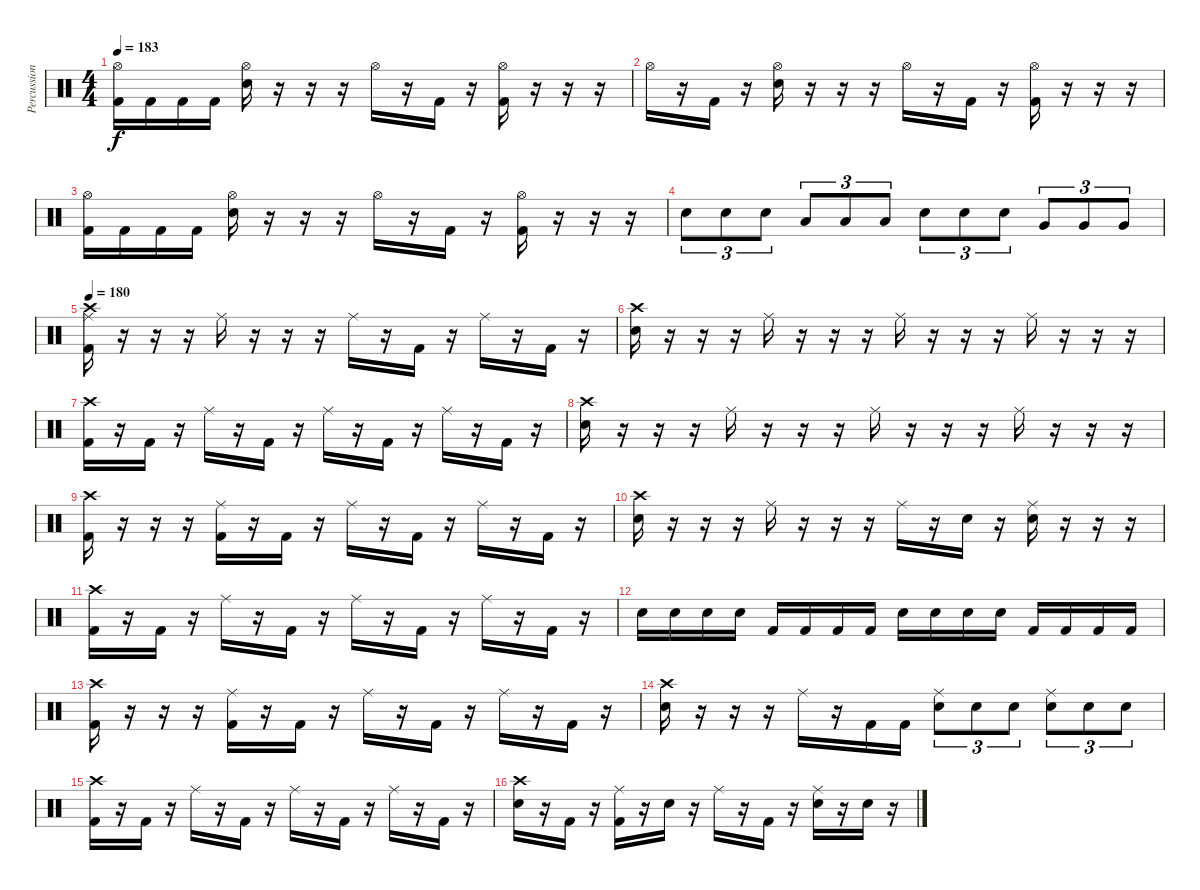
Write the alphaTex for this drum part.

\track ("Percussion" "Percussion") {instrument percussion}
\staff {score}
\articulation defaults
\ts (4 4)
\tempo 183
\clef neutral
\ks c
("Hi-Hat (open)" "Kick (hit) 2").16{dy f} "Kick (hit) 2".16 "Kick (hit) 2".16 "Kick (hit) 2".16 ("Hi-Hat (open)" "Electric Snare (hit)").16 r.16 r.16 r.16 "Hi-Hat (open)".16 r.16 "Kick (hit) 2".16 r.16 ("Hi-Hat (open)" "Kick (hit) 2").16 r.16 r.16 r.16 |
"Hi-Hat (open)".16 r.16 "Kick (hit) 2".16 r.16 ("Hi-Hat (open)" "Electric Snare (hit)").16 r.16 r.16 r.16 "Hi-Hat (open)".16 r.16 "Kick (hit) 2".16 r.16 ("Hi-Hat (open)" "Kick (hit) 2").16 r.16 r.16 r.16 |
("Hi-Hat (open)" "Kick (hit) 2").16 "Kick (hit) 2".16 "Kick (hit) 2".16 "Kick (hit) 2".16 ("Hi-Hat (open)" "Electric Snare (hit)").16 r.16 r.16 r.16 "Hi-Hat (open)".16 r.16 "Kick (hit) 2".16 r.16 ("Hi-Hat (open)" "Kick (hit) 2").16 r.16 r.16 r.16 |
"Electric Snare (hit)".8{tu (3 2)} "Electric Snare (hit)".8{tu (3 2)} "Electric Snare (hit)".8{tu (3 2)} "Low Tom (hit)".8{tu (3 2)} "Low Tom (hit)".8{tu (3 2)} "Low Tom (hit)".8{tu (3 2)} "Electric Snare (hit)".8{tu (3 2)} "Electric Snare (hit)".8{tu (3 2)} "Electric Snare (hit)".8{tu (3 2)} "Very Low Tom (hit)".8{tu (3 2)} "Very Low Tom (hit)".8{tu (3 2)} "Very Low Tom (hit)".8{tu (3 2)} |
\tempo 180
("Ride (middle)" "Crash high (hit)" "Kick (hit) 2").16 r.16 r.16 r.16 "Ride (middle)".16 r.16 r.16 r.16 "Ride (middle)".16 r.16 "Kick (hit) 2".16 r.16 "Ride (middle)".16 r.16 "Kick (hit) 2".16 r.16 |
("Crash high (hit)" "Electric Snare (hit)").16 r.16 r.16 r.16 "Ride (middle)".16 r.16 r.16 r.16 "Ride (middle)".16 r.16 r.16 r.16 "Ride (middle)".16 r.16 r.16 r.16 |
("Crash high (hit)" "Kick (hit) 2").16 r.16 "Kick (hit) 2".16 r.16 "Ride (middle)".16 r.16 "Kick (hit) 2".16 r.16 "Ride (middle)".16 r.16 "Kick (hit) 2".16 r.16 "Ride (middle)".16 r.16 "Kick (hit) 2".16 r.16 |
("Crash high (hit)" "Electric Snare (hit)").16 r.16 r.16 r.16 "Ride (middle)".16 r.16 r.16 r.16 "Ride (middle)".16 r.16 r.16 r.16 "Ride (middle)".16 r.16 r.16 r.16 |
("Crash high (hit)" "Kick (hit) 2").16 r.16 r.16 r.16 ("Ride (middle)" "Kick (hit) 2").16 r.16 "Kick (hit) 2".16 r.16 "Ride (middle)".16 r.16 "Kick (hit) 2".16 r.16 "Ride (middle)".16 r.16 "Kick (hit) 2".16 r.16 |
("Crash high (hit)" "Electric Snare (hit)").16 r.16 r.16 r.16 "Ride (middle)".16 r.16 r.16 r.16 "Ride (middle)".16 r.16 "Electric Snare (hit)".16 r.16 ("Ride (middle)" "Electric Snare (hit)").16 r.16 r.16 r.16 |
("Crash high (hit)" "Kick (hit) 2").16 r.16 "Kick (hit) 2".16 r.16 "Ride (middle)".16 r.16 "Kick (hit) 2".16 r.16 "Ride (middle)".16 r.16 "Kick (hit) 2".16 r.16 "Ride (middle)".16 r.16 "Kick (hit) 2".16 r.16 |
"Electric Snare (hit)".16 "Electric Snare (hit)".16 "Electric Snare (hit)".16 "Electric Snare (hit)".16 "Kick (hit) 2".16 "Kick (hit) 2".16 "Kick (hit) 2".16 "Kick (hit) 2".16 "Electric Snare (hit)".16 "Electric Snare (hit)".16 "Electric Snare (hit)".16 "Electric Snare (hit)".16 "Kick (hit) 2".16 "Kick (hit) 2".16 "Kick (hit) 2".16 "Kick (hit) 2".16 |
("Crash high (hit)" "Kick (hit) 2").16 r.16 r.16 r.16 ("Ride (middle)" "Kick (hit) 2").16 r.16 "Kick (hit) 2".16 r.16 "Ride (middle)".16 r.16 "Kick (hit) 2".16 r.16 "Ride (middle)".16 r.16 "Kick (hit) 2".16 r.16 |
("Crash high (hit)" "Electric Snare (hit)").16 r.16 r.16 r.16 "Ride (middle)".16 r.16 "Kick (hit) 2".16 "Kick (hit) 2".16 ("Ride (middle)" "Electric Snare (hit)").8{tu (3 2)} "Electric Snare (hit)".8{tu (3 2)} "Electric Snare (hit)".8{tu (3 2)} ("Ride (middle)" "Electric Snare (hit)").8{tu (3 2)} "Electric Snare (hit)".8{tu (3 2)} "Electric Snare (hit)".8{tu (3 2)} |
("Crash high (hit)" "Kick (hit) 2").16 r.16 "Kick (hit) 2".16 r.16 "Ride (middle)".16 r.16 "Kick (hit) 2".16 r.16 "Ride (middle)".16 r.16 "Kick (hit) 2".16 r.16 "Ride (middle)".16 r.16 "Kick (hit) 2".16 r.16 |
("Crash high (hit)" "Electric Snare (hit)").16 r.16 "Kick (hit) 2".16 r.16 ("Ride (middle)" "Kick (hit) 2").16 r.16 "Electric Snare (hit)".16 r.16 "Ride (middle)".16 r.16 "Kick (hit) 2".16 r.16 ("Ride (middle)" "Electric Snare (hit)").16 r.16 "Electric Snare (hit)".16 r.16
